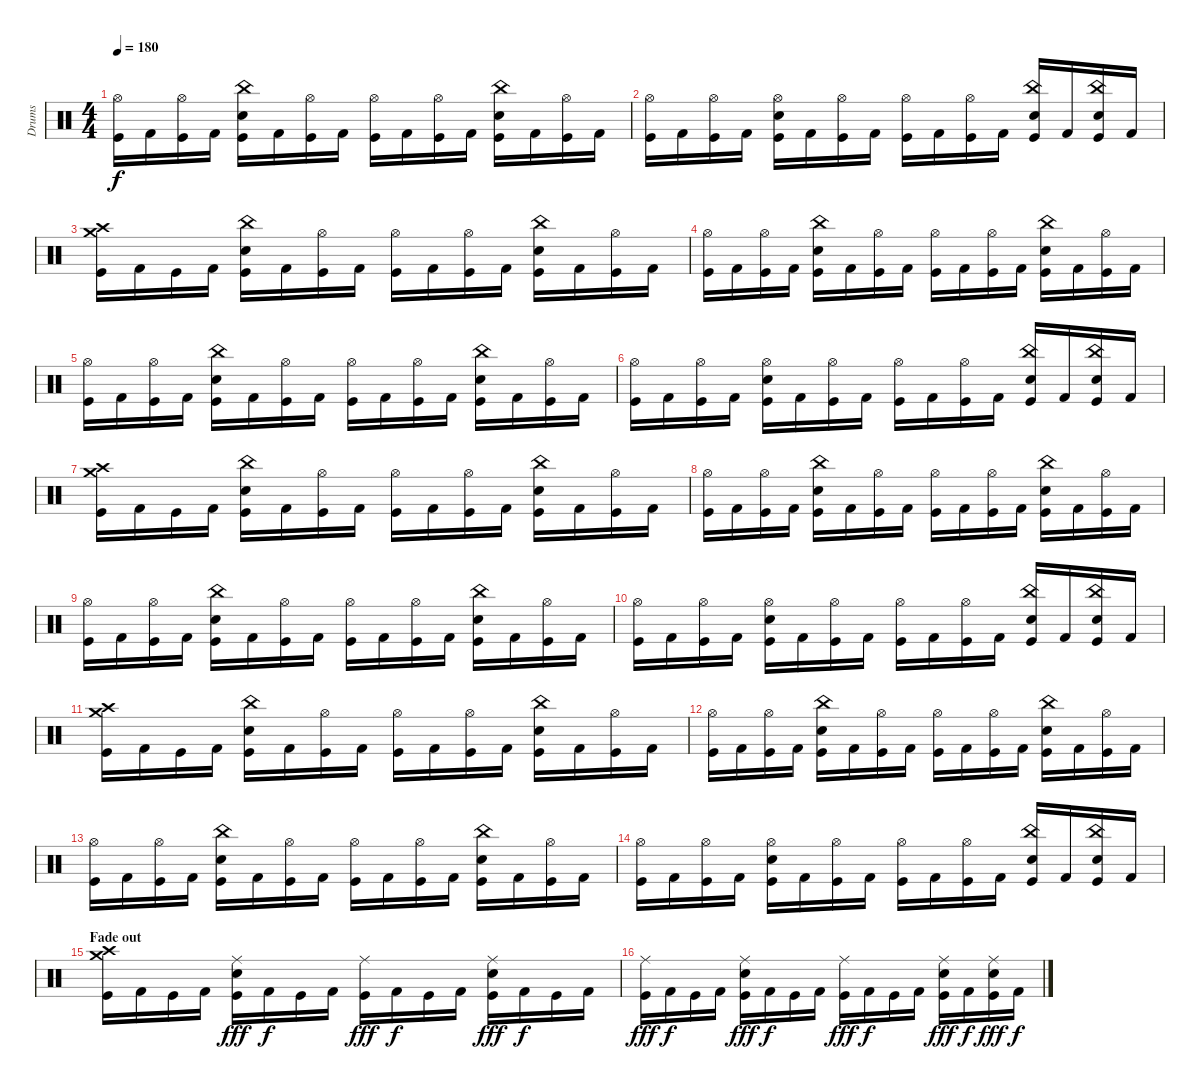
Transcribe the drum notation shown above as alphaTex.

\track ("Drums" "Drums") {instrument percussion}
\staff {score}
\articulation defaults
\ts (4 4)
\tempo 180
\clef neutral
\ks c
("Hi-Hat (open)" "Kick (hit)").16{dy f} "Kick (hit) 2".16 ("Hi-Hat (open)" "Kick (hit)").16 "Kick (hit) 2".16 ("China (hit)" "Electric Snare (hit)" "Kick (hit)").16 "Kick (hit) 2".16 ("Hi-Hat (open)" "Kick (hit)").16 "Kick (hit) 2".16 ("Hi-Hat (open)" "Kick (hit)").16 "Kick (hit) 2".16 ("Hi-Hat (open)" "Kick (hit)").16 "Kick (hit) 2".16 ("China (hit)" "Electric Snare (hit)" "Kick (hit)").16 "Kick (hit) 2".16 ("Hi-Hat (open)" "Kick (hit)").16 "Kick (hit) 2".16 |
("Hi-Hat (open)" "Kick (hit)").16 "Kick (hit) 2".16 ("Hi-Hat (open)" "Kick (hit)").16 "Kick (hit) 2".16 ("Hi-Hat (open)" "Electric Snare (hit)" "Kick (hit)").16 "Kick (hit) 2".16 ("Hi-Hat (open)" "Kick (hit)").16 "Kick (hit) 2".16 ("Hi-Hat (open)" "Kick (hit)").16 "Kick (hit) 2".16 ("Hi-Hat (open)" "Kick (hit)").16 "Kick (hit) 2".16 ("China (hit)" "Electric Snare (hit)" "Kick (hit)").16 "Kick (hit) 2".16 ("China (hit)" "Electric Snare (hit)" "Kick (hit)").16 "Kick (hit) 2".16 |
("Crash medium (hit)" "Crash high (hit)" "Kick (hit)").16 "Kick (hit) 2".16 "Kick (hit)".16 "Kick (hit) 2".16 ("China (hit)" "Electric Snare (hit)" "Kick (hit)").16 "Kick (hit) 2".16 ("Hi-Hat (open)" "Kick (hit)").16 "Kick (hit) 2".16 ("Hi-Hat (open)" "Kick (hit)").16 "Kick (hit) 2".16 ("Hi-Hat (open)" "Kick (hit)").16 "Kick (hit) 2".16 ("China (hit)" "Electric Snare (hit)" "Kick (hit)").16 "Kick (hit) 2".16 ("Hi-Hat (open)" "Kick (hit)").16 "Kick (hit) 2".16 |
("Hi-Hat (open)" "Kick (hit)").16 "Kick (hit) 2".16 ("Hi-Hat (open)" "Kick (hit)").16 "Kick (hit) 2".16 ("China (hit)" "Electric Snare (hit)" "Kick (hit)").16 "Kick (hit) 2".16 ("Hi-Hat (open)" "Kick (hit)").16 "Kick (hit) 2".16 ("Hi-Hat (open)" "Kick (hit)").16 "Kick (hit) 2".16 ("Hi-Hat (open)" "Kick (hit)").16 "Kick (hit) 2".16 ("China (hit)" "Electric Snare (hit)" "Kick (hit)").16 "Kick (hit) 2".16 ("Hi-Hat (open)" "Kick (hit)").16 "Kick (hit) 2".16 |
("Hi-Hat (open)" "Kick (hit)").16 "Kick (hit) 2".16 ("Hi-Hat (open)" "Kick (hit)").16 "Kick (hit) 2".16 ("China (hit)" "Electric Snare (hit)" "Kick (hit)").16 "Kick (hit) 2".16 ("Hi-Hat (open)" "Kick (hit)").16 "Kick (hit) 2".16 ("Hi-Hat (open)" "Kick (hit)").16 "Kick (hit) 2".16 ("Hi-Hat (open)" "Kick (hit)").16 "Kick (hit) 2".16 ("China (hit)" "Electric Snare (hit)" "Kick (hit)").16 "Kick (hit) 2".16 ("Hi-Hat (open)" "Kick (hit)").16 "Kick (hit) 2".16 |
("Hi-Hat (open)" "Kick (hit)").16 "Kick (hit) 2".16 ("Hi-Hat (open)" "Kick (hit)").16 "Kick (hit) 2".16 ("Hi-Hat (open)" "Electric Snare (hit)" "Kick (hit)").16 "Kick (hit) 2".16 ("Hi-Hat (open)" "Kick (hit)").16 "Kick (hit) 2".16 ("Hi-Hat (open)" "Kick (hit)").16 "Kick (hit) 2".16 ("Hi-Hat (open)" "Kick (hit)").16 "Kick (hit) 2".16 ("China (hit)" "Electric Snare (hit)" "Kick (hit)").16 "Kick (hit) 2".16 ("China (hit)" "Electric Snare (hit)" "Kick (hit)").16 "Kick (hit) 2".16 |
("Crash medium (hit)" "Crash high (hit)" "Kick (hit)").16 "Kick (hit) 2".16 "Kick (hit)".16 "Kick (hit) 2".16 ("China (hit)" "Electric Snare (hit)" "Kick (hit)").16 "Kick (hit) 2".16 ("Hi-Hat (open)" "Kick (hit)").16 "Kick (hit) 2".16 ("Hi-Hat (open)" "Kick (hit)").16 "Kick (hit) 2".16 ("Hi-Hat (open)" "Kick (hit)").16 "Kick (hit) 2".16 ("China (hit)" "Electric Snare (hit)" "Kick (hit)").16 "Kick (hit) 2".16 ("Hi-Hat (open)" "Kick (hit)").16 "Kick (hit) 2".16 |
("Hi-Hat (open)" "Kick (hit)").16 "Kick (hit) 2".16 ("Hi-Hat (open)" "Kick (hit)").16 "Kick (hit) 2".16 ("China (hit)" "Electric Snare (hit)" "Kick (hit)").16 "Kick (hit) 2".16 ("Hi-Hat (open)" "Kick (hit)").16 "Kick (hit) 2".16 ("Hi-Hat (open)" "Kick (hit)").16 "Kick (hit) 2".16 ("Hi-Hat (open)" "Kick (hit)").16 "Kick (hit) 2".16 ("China (hit)" "Electric Snare (hit)" "Kick (hit)").16 "Kick (hit) 2".16 ("Hi-Hat (open)" "Kick (hit)").16 "Kick (hit) 2".16 |
("Hi-Hat (open)" "Kick (hit)").16 "Kick (hit) 2".16 ("Hi-Hat (open)" "Kick (hit)").16 "Kick (hit) 2".16 ("China (hit)" "Electric Snare (hit)" "Kick (hit)").16 "Kick (hit) 2".16 ("Hi-Hat (open)" "Kick (hit)").16 "Kick (hit) 2".16 ("Hi-Hat (open)" "Kick (hit)").16 "Kick (hit) 2".16 ("Hi-Hat (open)" "Kick (hit)").16 "Kick (hit) 2".16 ("China (hit)" "Electric Snare (hit)" "Kick (hit)").16 "Kick (hit) 2".16 ("Hi-Hat (open)" "Kick (hit)").16 "Kick (hit) 2".16 |
("Hi-Hat (open)" "Kick (hit)").16 "Kick (hit) 2".16 ("Hi-Hat (open)" "Kick (hit)").16 "Kick (hit) 2".16 ("Hi-Hat (open)" "Electric Snare (hit)" "Kick (hit)").16 "Kick (hit) 2".16 ("Hi-Hat (open)" "Kick (hit)").16 "Kick (hit) 2".16 ("Hi-Hat (open)" "Kick (hit)").16 "Kick (hit) 2".16 ("Hi-Hat (open)" "Kick (hit)").16 "Kick (hit) 2".16 ("China (hit)" "Electric Snare (hit)" "Kick (hit)").16 "Kick (hit) 2".16 ("China (hit)" "Electric Snare (hit)" "Kick (hit)").16 "Kick (hit) 2".16 |
("Crash medium (hit)" "Crash high (hit)" "Kick (hit)").16 "Kick (hit) 2".16 "Kick (hit)".16 "Kick (hit) 2".16 ("China (hit)" "Electric Snare (hit)" "Kick (hit)").16 "Kick (hit) 2".16 ("Hi-Hat (open)" "Kick (hit)").16 "Kick (hit) 2".16 ("Hi-Hat (open)" "Kick (hit)").16 "Kick (hit) 2".16 ("Hi-Hat (open)" "Kick (hit)").16 "Kick (hit) 2".16 ("China (hit)" "Electric Snare (hit)" "Kick (hit)").16 "Kick (hit) 2".16 ("Hi-Hat (open)" "Kick (hit)").16 "Kick (hit) 2".16 |
("Hi-Hat (open)" "Kick (hit)").16 "Kick (hit) 2".16 ("Hi-Hat (open)" "Kick (hit)").16 "Kick (hit) 2".16 ("China (hit)" "Electric Snare (hit)" "Kick (hit)").16 "Kick (hit) 2".16 ("Hi-Hat (open)" "Kick (hit)").16 "Kick (hit) 2".16 ("Hi-Hat (open)" "Kick (hit)").16 "Kick (hit) 2".16 ("Hi-Hat (open)" "Kick (hit)").16 "Kick (hit) 2".16 ("China (hit)" "Electric Snare (hit)" "Kick (hit)").16 "Kick (hit) 2".16 ("Hi-Hat (open)" "Kick (hit)").16 "Kick (hit) 2".16 |
("Hi-Hat (open)" "Kick (hit)").16 "Kick (hit) 2".16 ("Hi-Hat (open)" "Kick (hit)").16 "Kick (hit) 2".16 ("China (hit)" "Electric Snare (hit)" "Kick (hit)").16 "Kick (hit) 2".16 ("Hi-Hat (open)" "Kick (hit)").16 "Kick (hit) 2".16 ("Hi-Hat (open)" "Kick (hit)").16 "Kick (hit) 2".16 ("Hi-Hat (open)" "Kick (hit)").16 "Kick (hit) 2".16 ("China (hit)" "Electric Snare (hit)" "Kick (hit)").16 "Kick (hit) 2".16 ("Hi-Hat (open)" "Kick (hit)").16 "Kick (hit) 2".16 |
("Hi-Hat (open)" "Kick (hit)").16 "Kick (hit) 2".16 ("Hi-Hat (open)" "Kick (hit)").16 "Kick (hit) 2".16 ("Hi-Hat (open)" "Electric Snare (hit)" "Kick (hit)").16 "Kick (hit) 2".16 ("Hi-Hat (open)" "Kick (hit)").16 "Kick (hit) 2".16 ("Hi-Hat (open)" "Kick (hit)").16 "Kick (hit) 2".16 ("Hi-Hat (open)" "Kick (hit)").16 "Kick (hit) 2".16 ("China (hit)" "Electric Snare (hit)" "Kick (hit)").16 "Kick (hit) 2".16 ("China (hit)" "Electric Snare (hit)" "Kick (hit)").16 "Kick (hit) 2".16 |
\section ("" "Fade out")
("Crash medium (hit)" "Crash high (hit)" "Kick (hit)").16 "Kick (hit) 2".16 "Kick (hit)".16 "Kick (hit) 2".16 ("Ride (middle)" "Electric Snare (hit)" "Kick (hit)").16{dy fff} "Kick (hit) 2".16{dy f} "Kick (hit)".16 "Kick (hit) 2".16 ("Ride (middle)" "Kick (hit)").16{dy fff} "Kick (hit) 2".16{dy f} "Kick (hit)".16 "Kick (hit) 2".16 ("Ride (middle)" "Electric Snare (hit)" "Kick (hit)").16{dy fff} "Kick (hit) 2".16{dy f} "Kick (hit)".16 "Kick (hit) 2".16 |
("Ride (middle)" "Kick (hit)").16{dy fff} "Kick (hit) 2".16{dy f} "Kick (hit)".16 "Kick (hit) 2".16 ("Ride (middle)" "Electric Snare (hit)" "Kick (hit)").16{dy fff} "Kick (hit) 2".16{dy f} "Kick (hit)".16 "Kick (hit) 2".16 ("Ride (middle)" "Kick (hit)").16{dy fff} "Kick (hit) 2".16{dy f} "Kick (hit)".16 "Kick (hit) 2".16 ("Ride (middle)" "Electric Snare (hit)" "Kick (hit)").16{dy fff} "Kick (hit) 2".16{dy f} ("Ride (middle)" "Electric Snare (hit)" "Kick (hit)").16{dy fff} "Kick (hit) 2".16{dy f}
